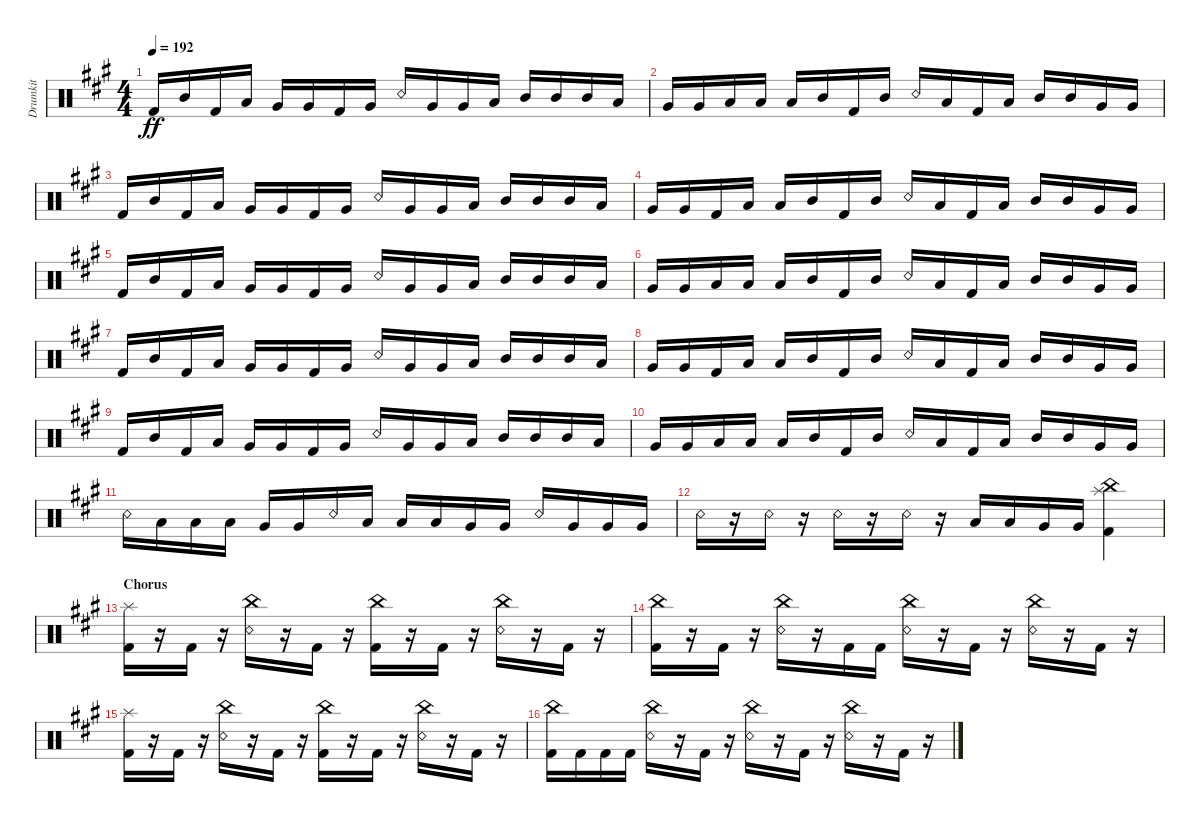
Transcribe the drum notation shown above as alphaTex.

\track ("Drumkit" "Drumkit") {instrument percussion}
\staff {score}
\articulation defaults
\ts (4 4)
\tempo 192
\clef neutral
\ks a "Kick (hit) 2".16{dy ff} "Mid Tom (hit)".16 "Kick (hit) 2".16 "Low Tom (hit)".16 "Very Low Tom (hit)".16 "Very Low Tom (hit)".16 "Kick (hit) 2".16 "Very Low Tom (hit)".16 "Snare (rim shot)".16 "Very Low Tom (hit)".16 "Very Low Tom (hit)".16 "Low Tom (hit)".16 "Mid Tom (hit)".16 "Mid Tom (hit)".16 "Mid Tom (hit)".16 "Low Tom (hit)".16
|
"Very Low Tom (hit)".16 "Very Low Tom (hit)".16 "Low Tom (hit)".16 "Low Tom (hit)".16 "Low Tom (hit)".16 "Mid Tom (hit)".16 "Kick (hit) 2".16 "Mid Tom (hit)".16 "Snare (rim shot)".16 "Low Tom (hit)".16 "Kick (hit) 2".16 "Low Tom (hit)".16 "Mid Tom (hit)".16 "Mid Tom (hit)".16 "Very Low Tom (hit)".16 "Very Low Tom (hit)".16 |
"Kick (hit) 2".16 "Mid Tom (hit)".16 "Kick (hit) 2".16 "Low Tom (hit)".16 "Very Low Tom (hit)".16 "Very Low Tom (hit)".16 "Kick (hit) 2".16 "Very Low Tom (hit)".16 "Snare (rim shot)".16 "Very Low Tom (hit)".16 "Very Low Tom (hit)".16 "Low Tom (hit)".16 "Mid Tom (hit)".16 "Mid Tom (hit)".16 "Mid Tom (hit)".16 "Low Tom (hit)".16 |
"Very Low Tom (hit)".16 "Very Low Tom (hit)".16 "Kick (hit) 2".16 "Low Tom (hit)".16 "Low Tom (hit)".16 "Mid Tom (hit)".16 "Kick (hit) 2".16 "Mid Tom (hit)".16 "Snare (rim shot)".16 "Low Tom (hit)".16 "Kick (hit) 2".16 "Low Tom (hit)".16 "Mid Tom (hit)".16 "Mid Tom (hit)".16 "Very Low Tom (hit)".16 "Very Low Tom (hit)".16 |
"Kick (hit) 2".16 "Mid Tom (hit)".16 "Kick (hit) 2".16 "Low Tom (hit)".16 "Very Low Tom (hit)".16 "Very Low Tom (hit)".16 "Kick (hit) 2".16 "Very Low Tom (hit)".16 "Snare (rim shot)".16 "Very Low Tom (hit)".16 "Very Low Tom (hit)".16 "Low Tom (hit)".16 "Mid Tom (hit)".16 "Mid Tom (hit)".16 "Mid Tom (hit)".16 "Low Tom (hit)".16 |
"Very Low Tom (hit)".16 "Very Low Tom (hit)".16 "Low Tom (hit)".16 "Low Tom (hit)".16 "Low Tom (hit)".16 "Mid Tom (hit)".16 "Kick (hit) 2".16 "Mid Tom (hit)".16 "Snare (rim shot)".16 "Low Tom (hit)".16 "Kick (hit) 2".16 "Low Tom (hit)".16 "Mid Tom (hit)".16 "Mid Tom (hit)".16 "Very Low Tom (hit)".16 "Very Low Tom (hit)".16 |
"Kick (hit) 2".16 "Mid Tom (hit)".16 "Kick (hit) 2".16 "Low Tom (hit)".16 "Very Low Tom (hit)".16 "Very Low Tom (hit)".16 "Kick (hit) 2".16 "Very Low Tom (hit)".16 "Snare (rim shot)".16 "Very Low Tom (hit)".16 "Very Low Tom (hit)".16 "Low Tom (hit)".16 "Mid Tom (hit)".16 "Mid Tom (hit)".16 "Mid Tom (hit)".16 "Low Tom (hit)".16 |
"Very Low Tom (hit)".16 "Very Low Tom (hit)".16 "Kick (hit) 2".16 "Low Tom (hit)".16 "Low Tom (hit)".16 "Mid Tom (hit)".16 "Kick (hit) 2".16 "Mid Tom (hit)".16 "Snare (rim shot)".16 "Low Tom (hit)".16 "Kick (hit) 2".16 "Low Tom (hit)".16 "Mid Tom (hit)".16 "Mid Tom (hit)".16 "Very Low Tom (hit)".16 "Very Low Tom (hit)".16 |
"Kick (hit) 2".16 "Mid Tom (hit)".16 "Kick (hit) 2".16 "Low Tom (hit)".16 "Very Low Tom (hit)".16 "Very Low Tom (hit)".16 "Kick (hit) 2".16 "Very Low Tom (hit)".16 "Snare (rim shot)".16 "Very Low Tom (hit)".16 "Very Low Tom (hit)".16 "Low Tom (hit)".16 "Mid Tom (hit)".16 "Mid Tom (hit)".16 "Mid Tom (hit)".16 "Low Tom (hit)".16 |
"Very Low Tom (hit)".16 "Very Low Tom (hit)".16 "Low Tom (hit)".16 "Low Tom (hit)".16 "Low Tom (hit)".16 "Mid Tom (hit)".16 "Kick (hit) 2".16 "Mid Tom (hit)".16 "Snare (rim shot)".16 "Low Tom (hit)".16 "Kick (hit) 2".16 "Low Tom (hit)".16 "Mid Tom (hit)".16 "Mid Tom (hit)".16 "Very Low Tom (hit)".16 "Very Low Tom (hit)".16 |
"Snare (rim shot)".16 "Low Tom (hit)".16 "Low Tom (hit)".16 "Low Tom (hit)".16 "Very Low Tom (hit)".16 "Very Low Tom (hit)".16 "Snare (rim shot)".16 "Low Tom (hit)".16 "Low Tom (hit)".16 "Low Tom (hit)".16 "Very Low Tom (hit)".16 "Very Low Tom (hit)".16 "Snare (rim shot)".16 "Very Low Tom (hit)".16 "Very Low Tom (hit)".16 "Very Low Tom (hit)".16 |
"Snare (rim shot)".16 r.16 "Snare (rim shot)".16 r.16 "Snare (rim shot)".16 r.16 "Snare (rim shot)".16 r.16 "Low Tom (hit)".16 "Low Tom (hit)".16 "Very Low Tom (hit)".16 "Very Low Tom (hit)".16 ("Kick (hit) 2" "China (hit)" "Splash (hit)").4 |
\section ("" "Chorus")
("Kick (hit) 2" "Splash (hit)").16 r.16 "Kick (hit) 2".16 r.16 ("China (hit)" "Snare (rim shot)").16 r.16 "Kick (hit) 2".16 r.16 ("China (hit)" "Kick (hit) 2").16 r.16 "Kick (hit) 2".16 r.16 ("China (hit)" "Snare (rim shot)").16 r.16 "Kick (hit) 2".16 r.16 |
("Kick (hit) 2" "China (hit)").16 r.16 "Kick (hit) 2".16 r.16 ("China (hit)" "Snare (rim shot)").16 r.16 "Kick (hit) 2".16 "Kick (hit) 2".16 ("China (hit)" "Snare (rim shot)").16 r.16 "Kick (hit) 2".16 r.16 ("China (hit)" "Snare (rim shot)").16 r.16 "Kick (hit) 2".16 r.16 |
("Kick (hit) 2" "Splash (hit)").16 r.16 "Kick (hit) 2".16 r.16 ("China (hit)" "Snare (rim shot)").16 r.16 "Kick (hit) 2".16 r.16 ("China (hit)" "Kick (hit) 2").16 r.16 "Kick (hit) 2".16 r.16 ("China (hit)" "Snare (rim shot)").16 r.16 "Kick (hit) 2".16 r.16 |
("Kick (hit) 2" "China (hit)").16 "Kick (hit) 2".16 "Kick (hit) 2".16 "Kick (hit) 2".16 ("China (hit)" "Snare (rim shot)").16 r.16 "Kick (hit) 2".16 r.16 ("China (hit)" "Snare (rim shot)").16 r.16 "Kick (hit) 2".16 r.16 ("China (hit)" "Snare (rim shot)").16 r.16 "Kick (hit) 2".16 r.16
